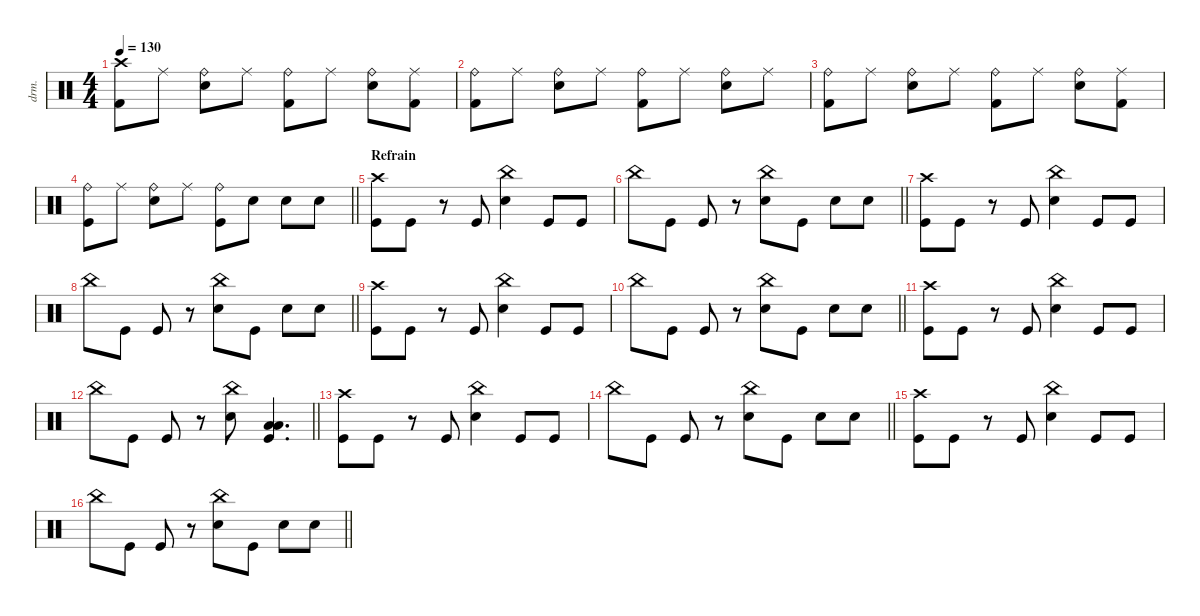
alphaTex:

\defaultSystemsLayout 4
\hideDynamics
\bracketExtendMode nobrackets
\track ("Manouche" "drm.") {instrument percussion}
\staff {score}
\articulation defaults
\ts (4 4)
\tempo 130
\clef neutral
\ks c
("Crash high (hit)" "Kick (hit) 2").8{dy f} "Ride (middle)".8{dy mf} ("Ride (bell)" "Snare (hit) 2").8{dy f} "Ride (middle)".8{dy mf} ("Ride (bell)" "Kick (hit) 2").8{dy f} "Ride (middle)".8{dy mf} ("Ride (bell)" "Snare (hit) 2").8{dy f} ("Ride (middle)" "Kick (hit) 2").8{dy mf} |
("Ride (bell)" "Kick (hit) 2").8{dy f} "Ride (middle)".8{dy mf} ("Ride (bell)" "Snare (hit) 2").8{dy f} "Ride (middle)".8{dy mf} ("Ride (bell)" "Kick (hit) 2").8{dy f} "Ride (middle)".8{dy mf} ("Ride (bell)" "Snare (hit) 2").8{dy f} "Ride (middle)".8{dy mf} |
("Ride (bell)" "Kick (hit) 2").8{dy f} "Ride (middle)".8{dy mf} ("Ride (bell)" "Snare (hit) 2").8{dy f} "Ride (middle)".8{dy mf} ("Ride (bell)" "Kick (hit) 2").8{dy f} "Ride (middle)".8{dy mf} ("Ride (bell)" "Snare (hit) 2").8{dy f} ("Ride (middle)" "Kick (hit) 2").8{dy mf} |
\barLineRight lightlight
("Ride (bell)" "Kick (hit)").8{dy f} "Ride (middle)".8{dy mf} ("Ride (bell)" "Snare (hit) 2").8{dy f} "Ride (middle)".8{dy mf} ("Ride (bell)" "Kick (hit)").8{dy f} "Snare (hit) 2".8 "Snare (hit) 2".8 "Snare (hit) 2".8 |
\section ("" "Refrain")
("Crash high (hit)" "Kick (hit)").8 "Kick (hit)".8 r.8 "Kick (hit)".8 ("China (hit)" "Snare (hit) 2").4 "Kick (hit)".8 "Kick (hit)".8 |
\barLineRight lightlight "China (hit)".8 "Kick (hit)".8 "Kick (hit)".8
r.8 ("China (hit)" "Snare (hit) 2").8 "Kick (hit)".8 "Snare (hit) 2".8 "Snare (hit) 2".8 |
("Crash high (hit)" "Kick (hit)").8 "Kick (hit)".8 r.8 "Kick (hit)".8 ("China (hit)" "Snare (hit) 2").4 "Kick (hit)".8 "Kick (hit)".8 |
\barLineRight lightlight "China (hit)".8 "Kick (hit)".8 "Kick (hit)".8
r.8 ("China (hit)" "Snare (hit) 2").8 "Kick (hit)".8 "Snare (hit) 2".8 "Snare (hit) 2".8 |
("Crash high (hit)" "Kick (hit)").8 "Kick (hit)".8 r.8 "Kick (hit)".8 ("China (hit)" "Snare (hit) 2").4 "Kick (hit)".8 "Kick (hit)".8 |
\barLineRight lightlight "China (hit)".8 "Kick (hit)".8 "Kick (hit)".8
r.8 ("China (hit)" "Snare (hit) 2").8 "Kick (hit)".8 "Snare (hit) 2".8 "Snare (hit) 2".8 |
("Crash high (hit)" "Kick (hit)").8 "Kick (hit)".8 r.8 "Kick (hit)".8 ("China (hit)" "Snare (hit) 2").4 "Kick (hit)".8 "Kick (hit)".8 |
\barLineRight lightlight "China (hit)".8 "Kick (hit)".8 "Kick (hit)".8
r.8 ("China (hit)" "Snare (hit) 2").8 ("Low Tom (hit)" "Kick (hit)" "Low Floor Tom (hit)").4{d dy ff} |
("Crash high (hit)" "Kick (hit)").8{dy f} "Kick (hit)".8 r.8 "Kick (hit)".8 ("China (hit)" "Snare (hit) 2").4 "Kick (hit)".8 "Kick (hit)".8 |
\barLineRight lightlight "China (hit)".8 "Kick (hit)".8 "Kick (hit)".8
r.8 ("China (hit)" "Snare (hit) 2").8 "Kick (hit)".8 "Snare (hit) 2".8 "Snare (hit) 2".8 |
("Crash high (hit)" "Kick (hit)").8 "Kick (hit)".8 r.8 "Kick (hit)".8 ("China (hit)" "Snare (hit) 2").4 "Kick (hit)".8 "Kick (hit)".8 |
\barLineRight lightlight "China (hit)".8 "Kick (hit)".8 "Kick (hit)".8
r.8 ("China (hit)" "Snare (hit) 2").8 "Kick (hit)".8 "Snare (hit) 2".8 "Snare (hit) 2".8
